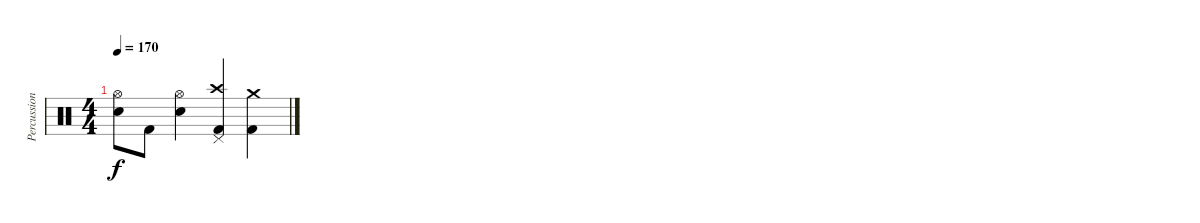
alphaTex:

\track ("Percussion" "Percussion") {instrument percussion}
\staff {score}
\articulation defaults
\ts (4 4)
\tempo 170
\clef neutral
\ks c
("Hi-Hat (open)" "Electric Snare (hit)").8{dy f} "Kick (hit) 2".8 ("Hi-Hat (open)" "Electric Snare (hit)").4 ("Crash high (hit)" "Pedal Hi-Hat (hit)" "Kick (hit) 2").4 ("Crash medium (hit)" "Kick (hit) 2").4
